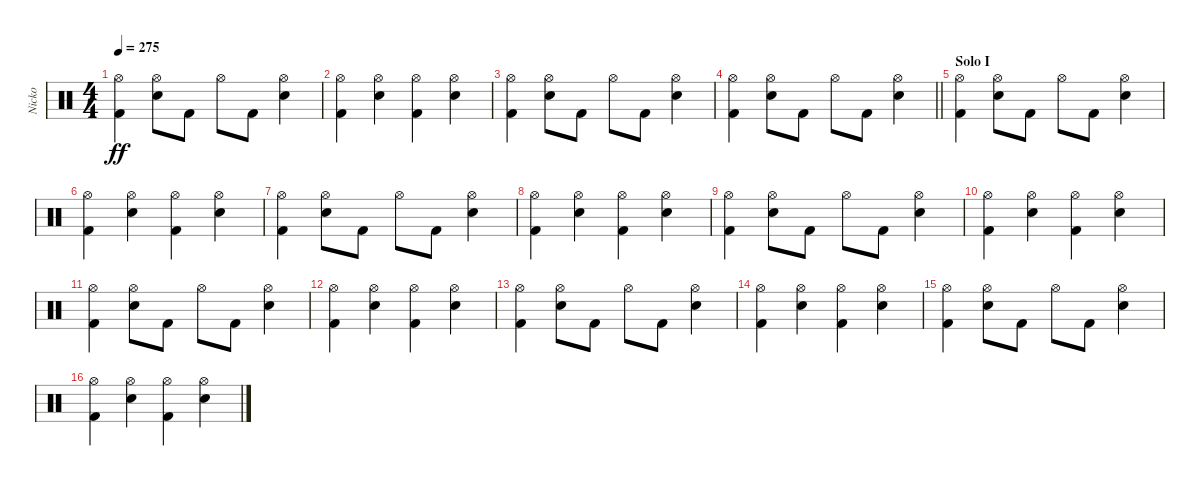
\track ("Nicko" "Nicko") {instrument percussion}
\staff {score}
\articulation defaults
\ts (4 4)
\tempo 275
\clef neutral
\ks c
("Kick (hit) 2" "Hi-Hat (open)").4{dy ff} ("Snare (hit) 2" "Hi-Hat (open)").8 "Kick (hit) 2".8 "Hi-Hat (open)".8 "Kick (hit) 2".8 ("Snare (hit) 2" "Hi-Hat (open)").4 |
("Kick (hit) 2" "Hi-Hat (open)").4 ("Snare (hit) 2" "Hi-Hat (open)").4 ("Kick (hit) 2" "Hi-Hat (open)").4 ("Snare (hit) 2" "Hi-Hat (open)").4 |
("Kick (hit) 2" "Hi-Hat (open)").4 ("Snare (hit) 2" "Hi-Hat (open)").8 "Kick (hit) 2".8 "Hi-Hat (open)".8 "Kick (hit) 2".8 ("Snare (hit) 2" "Hi-Hat (open)").4 |
\barLineRight lightlight
("Kick (hit) 2" "Hi-Hat (open)").4 ("Snare (hit) 2" "Hi-Hat (open)").8 "Kick (hit) 2".8 "Hi-Hat (open)".8 "Kick (hit) 2".8 ("Snare (hit) 2" "Hi-Hat (open)").4 |
\section ("" "Solo I")
("Kick (hit) 2" "Hi-Hat (open)").4 ("Snare (hit) 2" "Hi-Hat (open)").8 "Kick (hit) 2".8 "Hi-Hat (open)".8 "Kick (hit) 2".8 ("Snare (hit) 2" "Hi-Hat (open)").4 |
("Kick (hit) 2" "Hi-Hat (open)").4 ("Snare (hit) 2" "Hi-Hat (open)").4 ("Kick (hit) 2" "Hi-Hat (open)").4 ("Snare (hit) 2" "Hi-Hat (open)").4 |
("Kick (hit) 2" "Hi-Hat (open)").4 ("Snare (hit) 2" "Hi-Hat (open)").8 "Kick (hit) 2".8 "Hi-Hat (open)".8 "Kick (hit) 2".8 ("Snare (hit) 2" "Hi-Hat (open)").4 |
("Kick (hit) 2" "Hi-Hat (open)").4 ("Snare (hit) 2" "Hi-Hat (open)").4 ("Kick (hit) 2" "Hi-Hat (open)").4 ("Snare (hit) 2" "Hi-Hat (open)").4 |
("Kick (hit) 2" "Hi-Hat (open)").4 ("Snare (hit) 2" "Hi-Hat (open)").8 "Kick (hit) 2".8 "Hi-Hat (open)".8 "Kick (hit) 2".8 ("Snare (hit) 2" "Hi-Hat (open)").4 |
("Kick (hit) 2" "Hi-Hat (open)").4 ("Snare (hit) 2" "Hi-Hat (open)").4 ("Kick (hit) 2" "Hi-Hat (open)").4 ("Snare (hit) 2" "Hi-Hat (open)").4 |
("Kick (hit) 2" "Hi-Hat (open)").4 ("Snare (hit) 2" "Hi-Hat (open)").8 "Kick (hit) 2".8 "Hi-Hat (open)".8 "Kick (hit) 2".8 ("Snare (hit) 2" "Hi-Hat (open)").4 |
("Kick (hit) 2" "Hi-Hat (open)").4 ("Snare (hit) 2" "Hi-Hat (open)").4 ("Kick (hit) 2" "Hi-Hat (open)").4 ("Snare (hit) 2" "Hi-Hat (open)").4 |
("Kick (hit) 2" "Hi-Hat (open)").4 ("Snare (hit) 2" "Hi-Hat (open)").8 "Kick (hit) 2".8 "Hi-Hat (open)".8 "Kick (hit) 2".8 ("Snare (hit) 2" "Hi-Hat (open)").4 |
("Kick (hit) 2" "Hi-Hat (open)").4 ("Snare (hit) 2" "Hi-Hat (open)").4 ("Kick (hit) 2" "Hi-Hat (open)").4 ("Snare (hit) 2" "Hi-Hat (open)").4 |
("Kick (hit) 2" "Hi-Hat (open)").4 ("Snare (hit) 2" "Hi-Hat (open)").8 "Kick (hit) 2".8 "Hi-Hat (open)".8 "Kick (hit) 2".8 ("Snare (hit) 2" "Hi-Hat (open)").4 |
("Kick (hit) 2" "Hi-Hat (open)").4 ("Snare (hit) 2" "Hi-Hat (open)").4 ("Kick (hit) 2" "Hi-Hat (open)").4 ("Snare (hit) 2" "Hi-Hat (open)").4
